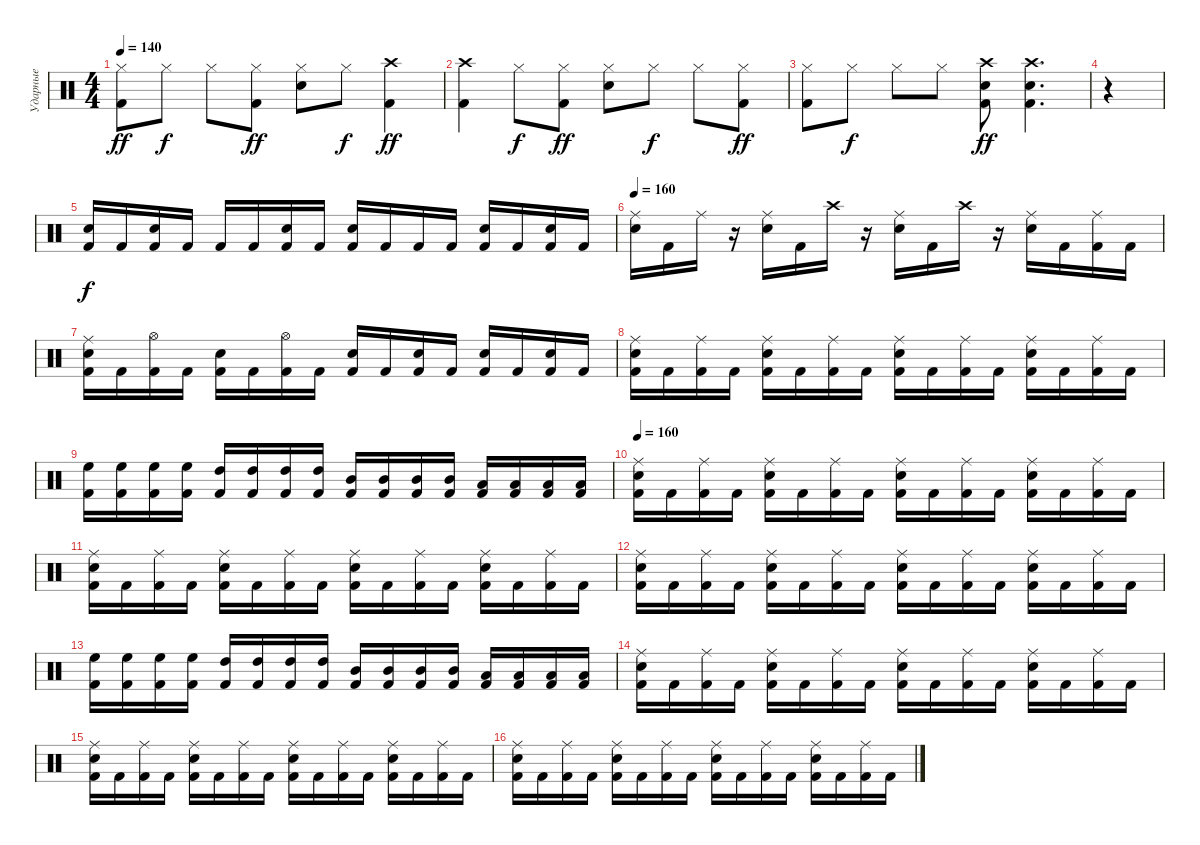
\track ("Ударные" "Ударные") {instrument percussion}
\staff {score}
\articulation defaults
\ts (4 4)
\tempo 140
\clef neutral
\ks c
("Hi-Hat (closed)" "Kick (hit) 2").8{dy ff} "Hi-Hat (closed)".8{dy f} "Hi-Hat (closed)".8 ("Hi-Hat (closed)" "Kick (hit) 2").8{dy ff} ("Hi-Hat (closed)" "Snare (hit) 2").8 "Hi-Hat (closed)".8{dy f} ("Crash high (hit)" "Kick (hit) 2").4{dy ff} |
("Crash high (hit)" "Kick (hit) 2").4 "Hi-Hat (closed)".8{dy f} ("Hi-Hat (closed)" "Kick (hit) 2").8{dy ff} ("Hi-Hat (closed)" "Snare (hit) 2").8 "Hi-Hat (closed)".8{dy f} "Hi-Hat (closed)".8 ("Hi-Hat (closed)" "Kick (hit) 2").8{dy ff} |
("Hi-Hat (closed)" "Kick (hit) 2").8 "Hi-Hat (closed)".8{dy f} "Hi-Hat (closed)".8 "Hi-Hat (closed)".8 ("Crash high (hit)" "Snare (hit) 2" "Kick (hit) 2").8{dy ff} ("Crash high (hit)" "Snare (hit) 2" "Kick (hit) 2").4{d} |
r.4 |
("Kick (hit) 2" "Snare (hit) 2").16{dy f} "Kick (hit) 2".16 ("Kick (hit) 2" "Snare (hit) 2").16 "Kick (hit) 2".16 "Kick (hit) 2".16 "Kick (hit) 2".16 ("Kick (hit) 2" "Snare (hit) 2").16 "Kick (hit) 2".16 ("Kick (hit) 2" "Snare (hit) 2").16 "Kick (hit) 2".16 "Kick (hit) 2".16 "Kick (hit) 2".16 ("Kick (hit) 2" "Snare (hit) 2").16 "Kick (hit) 2".16 ("Kick (hit) 2" "Snare (hit) 2").16 "Kick (hit) 2".16 |
\tempo 160
("Ride (middle)" "Snare (hit) 2").16 "Kick (hit) 2".16 "Ride (middle)".16 r.16 ("Ride (middle)" "Snare (hit) 2").16 "Kick (hit) 2".16 "Crash high (hit)".16 r.16 ("Ride (middle)" "Snare (hit) 2").16 "Kick (hit) 2".16 "Crash high (hit)".16 r.16 ("Ride (middle)" "Snare (hit) 2").16 "Kick (hit) 2".16 ("Kick (hit) 2" "Ride (middle)").16 "Kick (hit) 2".16 |
("Kick (hit) 2" "Ride (middle)" "Snare (hit) 2").16 "Kick (hit) 2".16 ("Kick (hit) 2" "Hi-Hat (open)").16 "Kick (hit) 2".16 ("Kick (hit) 2" "Snare (hit) 2").16 "Kick (hit) 2".16 ("Kick (hit) 2" "Hi-Hat (open)").16 "Kick (hit) 2".16 ("Kick (hit) 2" "Snare (hit) 2").16 "Kick (hit) 2".16 ("Kick (hit) 2" "Snare (hit) 2").16 "Kick (hit) 2".16 ("Kick (hit) 2" "Snare (hit) 2").16 "Kick (hit) 2".16 ("Kick (hit) 2" "Snare (hit) 2").16 "Kick (hit) 2".16 |
("Kick (hit) 2" "Ride (middle)" "Snare (hit) 2").16 "Kick (hit) 2".16 ("Kick (hit) 2" "Ride (middle)").16 "Kick (hit) 2".16 ("Kick (hit) 2" "Ride (middle)" "Snare (hit) 2").16 "Kick (hit) 2".16 ("Kick (hit) 2" "Ride (middle)").16 "Kick (hit) 2".16 ("Kick (hit) 2" "Ride (middle)" "Snare (hit) 2").16 "Kick (hit) 2".16 ("Kick (hit) 2" "Ride (middle)").16 "Kick (hit) 2".16 ("Kick (hit) 2" "Ride (middle)" "Snare (hit) 2").16 "Kick (hit) 2".16 ("Kick (hit) 2" "Ride (middle)").16 "Kick (hit) 2".16 |
("Kick (hit) 2" "High Floor Tom (hit)").16 ("Kick (hit) 2" "High Floor Tom (hit)").16 ("Kick (hit) 2" "High Floor Tom (hit)").16 ("Kick (hit) 2" "High Floor Tom (hit)").16 ("Kick (hit) 2" "High Tom (hit)").16 ("Kick (hit) 2" "High Tom (hit)").16 ("Kick (hit) 2" "High Tom (hit)").16 ("Kick (hit) 2" "High Tom (hit)").16 ("Kick (hit) 2" "Mid Tom (hit)").16 ("Kick (hit) 2" "Mid Tom (hit)").16 ("Kick (hit) 2" "Mid Tom (hit)").16 ("Kick (hit) 2" "Mid Tom (hit)").16 ("Kick (hit) 2" "Low Tom (hit)").16 ("Kick (hit) 2" "Low Tom (hit)").16 ("Kick (hit) 2" "Low Tom (hit)").16 ("Kick (hit) 2" "Low Tom (hit)").16 |
\tempo 160
("Kick (hit) 2" "Ride (middle)" "Snare (hit) 2").16 "Kick (hit) 2".16 ("Kick (hit) 2" "Ride (middle)").16 "Kick (hit) 2".16 ("Kick (hit) 2" "Ride (middle)" "Snare (hit) 2").16 "Kick (hit) 2".16 ("Kick (hit) 2" "Ride (middle)").16 "Kick (hit) 2".16 ("Kick (hit) 2" "Ride (middle)" "Snare (hit) 2").16 "Kick (hit) 2".16 ("Kick (hit) 2" "Ride (middle)").16 "Kick (hit) 2".16 ("Kick (hit) 2" "Ride (middle)" "Snare (hit) 2").16 "Kick (hit) 2".16 ("Kick (hit) 2" "Ride (middle)").16 "Kick (hit) 2".16 |
("Kick (hit) 2" "Ride (middle)" "Snare (hit) 2").16 "Kick (hit) 2".16 ("Kick (hit) 2" "Ride (middle)").16 "Kick (hit) 2".16 ("Kick (hit) 2" "Ride (middle)" "Snare (hit) 2").16 "Kick (hit) 2".16 ("Kick (hit) 2" "Ride (middle)").16 "Kick (hit) 2".16 ("Kick (hit) 2" "Ride (middle)" "Snare (hit) 2").16 "Kick (hit) 2".16 ("Kick (hit) 2" "Ride (middle)").16 "Kick (hit) 2".16 ("Kick (hit) 2" "Ride (middle)" "Snare (hit) 2").16 "Kick (hit) 2".16 ("Kick (hit) 2" "Ride (middle)").16 "Kick (hit) 2".16 |
("Kick (hit) 2" "Ride (middle)" "Snare (hit) 2").16 "Kick (hit) 2".16 ("Kick (hit) 2" "Ride (middle)").16 "Kick (hit) 2".16 ("Kick (hit) 2" "Ride (middle)" "Snare (hit) 2").16 "Kick (hit) 2".16 ("Kick (hit) 2" "Ride (middle)").16 "Kick (hit) 2".16 ("Kick (hit) 2" "Ride (middle)" "Snare (hit) 2").16 "Kick (hit) 2".16 ("Kick (hit) 2" "Ride (middle)").16 "Kick (hit) 2".16 ("Kick (hit) 2" "Ride (middle)" "Snare (hit) 2").16 "Kick (hit) 2".16 ("Kick (hit) 2" "Ride (middle)").16 "Kick (hit) 2".16 |
("Kick (hit) 2" "High Floor Tom (hit)").16 ("Kick (hit) 2" "High Floor Tom (hit)").16 ("Kick (hit) 2" "High Floor Tom (hit)").16 ("Kick (hit) 2" "High Floor Tom (hit)").16 ("Kick (hit) 2" "High Tom (hit)").16 ("Kick (hit) 2" "High Tom (hit)").16 ("Kick (hit) 2" "High Tom (hit)").16 ("Kick (hit) 2" "High Tom (hit)").16 ("Kick (hit) 2" "Mid Tom (hit)").16 ("Kick (hit) 2" "Mid Tom (hit)").16 ("Kick (hit) 2" "Mid Tom (hit)").16 ("Kick (hit) 2" "Mid Tom (hit)").16 ("Kick (hit) 2" "Low Tom (hit)").16 ("Kick (hit) 2" "Low Tom (hit)").16 ("Kick (hit) 2" "Low Tom (hit)").16 ("Kick (hit) 2" "Low Tom (hit)").16 |
("Kick (hit) 2" "Ride (middle)" "Snare (hit) 2").16 "Kick (hit) 2".16 ("Kick (hit) 2" "Ride (middle)").16 "Kick (hit) 2".16 ("Kick (hit) 2" "Ride (middle)" "Snare (hit) 2").16 "Kick (hit) 2".16 ("Kick (hit) 2" "Ride (middle)").16 "Kick (hit) 2".16 ("Kick (hit) 2" "Ride (middle)" "Snare (hit) 2").16 "Kick (hit) 2".16 ("Kick (hit) 2" "Ride (middle)").16 "Kick (hit) 2".16 ("Kick (hit) 2" "Ride (middle)" "Snare (hit) 2").16 "Kick (hit) 2".16 ("Kick (hit) 2" "Ride (middle)").16 "Kick (hit) 2".16 |
("Kick (hit) 2" "Ride (middle)" "Snare (hit) 2").16 "Kick (hit) 2".16 ("Kick (hit) 2" "Ride (middle)").16 "Kick (hit) 2".16 ("Kick (hit) 2" "Ride (middle)" "Snare (hit) 2").16 "Kick (hit) 2".16 ("Kick (hit) 2" "Ride (middle)").16 "Kick (hit) 2".16 ("Kick (hit) 2" "Ride (middle)" "Snare (hit) 2").16 "Kick (hit) 2".16 ("Kick (hit) 2" "Ride (middle)").16 "Kick (hit) 2".16 ("Kick (hit) 2" "Ride (middle)" "Snare (hit) 2").16 "Kick (hit) 2".16 ("Kick (hit) 2" "Ride (middle)").16 "Kick (hit) 2".16 |
("Kick (hit) 2" "Ride (middle)" "Snare (hit) 2").16 "Kick (hit) 2".16 ("Kick (hit) 2" "Ride (middle)").16 "Kick (hit) 2".16 ("Kick (hit) 2" "Ride (middle)" "Snare (hit) 2").16 "Kick (hit) 2".16 ("Kick (hit) 2" "Ride (middle)").16 "Kick (hit) 2".16 ("Kick (hit) 2" "Ride (middle)" "Snare (hit) 2").16 "Kick (hit) 2".16 ("Kick (hit) 2" "Ride (middle)").16 "Kick (hit) 2".16 ("Kick (hit) 2" "Ride (middle)" "Snare (hit) 2").16 "Kick (hit) 2".16 ("Kick (hit) 2" "Ride (middle)").16 "Kick (hit) 2".16
